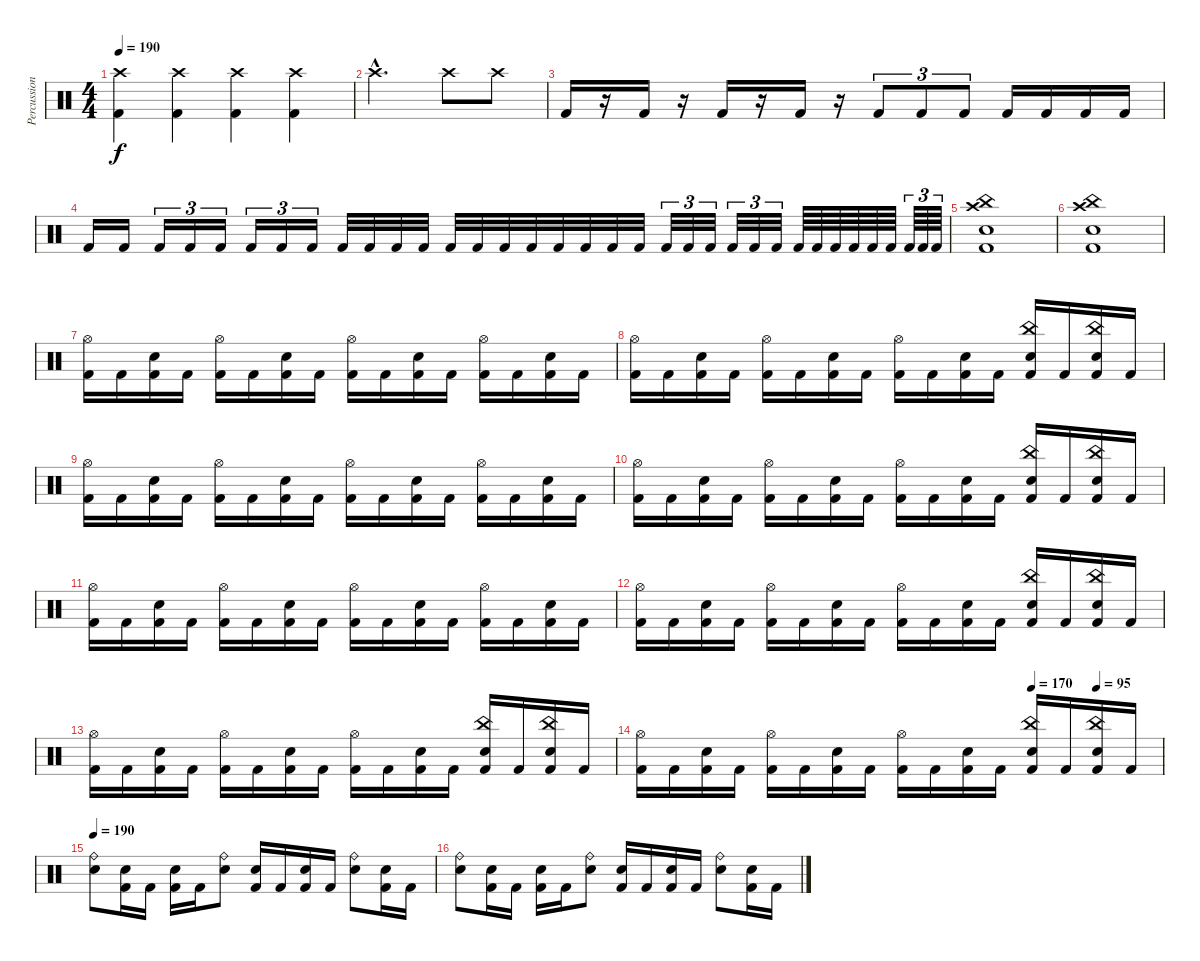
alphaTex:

\track ("Percussion" "Percussion") {instrument percussion}
\staff {score}
\articulation defaults
\ts (4 4)
\tempo 190
\clef neutral
\ks c
("Crash high (hit)" "Kick (hit) 2").4{dy f} ("Crash high (hit)" "Kick (hit) 2").4 ("Crash high (hit)" "Kick (hit) 2").4 ("Crash high (hit)" "Kick (hit) 2").4 |
"Crash high (hit)"{hac}.2{d} "Crash high (hit)".8 "Crash high (hit)".8 |
"Kick (hit) 2".16 r.16 "Kick (hit) 2".16 r.16 "Kick (hit) 2".16 r.16 "Kick (hit) 2".16 r.16 "Kick (hit) 2".8{tu (3 2)} "Kick (hit) 2".8{tu (3 2)} "Kick (hit) 2".8{tu (3 2)} "Kick (hit) 2".16 "Kick (hit) 2".16 "Kick (hit) 2".16 "Kick (hit) 2".16 |
"Kick (hit) 2".16 "Kick (hit) 2".16 "Kick (hit) 2".16{tu (3 2)} "Kick (hit) 2".16{tu (3 2)} "Kick (hit) 2".16{tu (3 2)} "Kick (hit) 2".16{tu (3 2)} "Kick (hit) 2".16{tu (3 2)} "Kick (hit) 2".16{tu (3 2)} "Kick (hit) 2".32 "Kick (hit) 2".32 "Kick (hit) 2".32 "Kick (hit) 2".32 "Kick (hit) 2".32 "Kick (hit) 2".32 "Kick (hit) 2".32 "Kick (hit) 2".32 "Kick (hit) 2".32 "Kick (hit) 2".32 "Kick (hit) 2".32 "Kick (hit) 2".32 "Kick (hit) 2".32{tu (3 2)} "Kick (hit) 2".32{tu (3 2)} "Kick (hit) 2".32{tu (3 2)} "Kick (hit) 2".32{tu (3 2)} "Kick (hit) 2".32{tu (3 2)} "Kick (hit) 2".32{tu (3 2)} "Kick (hit) 2".64 "Kick (hit) 2".64 "Kick (hit) 2".64 "Kick (hit) 2".64 "Kick (hit) 2".64 "Kick (hit) 2".64 "Kick (hit) 2".64{tu (3 2)} "Kick (hit) 2".64{tu (3 2)} "Kick (hit) 2".64{tu (3 2)} |
("Crash high (hit)" "China (hit)" "Snare (hit) 2" "Kick (hit) 2").1 |
("Crash high (hit)" "China (hit)" "Snare (hit) 2" "Kick (hit) 2").1 |
("Hi-Hat (open)" "Kick (hit) 2").16 "Kick (hit) 2".16 ("Snare (hit) 2" "Kick (hit) 2").16 "Kick (hit) 2".16 ("Hi-Hat (open)" "Kick (hit) 2").16 "Kick (hit) 2".16 ("Snare (hit) 2" "Kick (hit) 2").16 "Kick (hit) 2".16 ("Hi-Hat (open)" "Kick (hit) 2").16 "Kick (hit) 2".16 ("Snare (hit) 2" "Kick (hit) 2").16 "Kick (hit) 2".16 ("Hi-Hat (open)" "Kick (hit) 2").16 "Kick (hit) 2".16 ("Snare (hit) 2" "Kick (hit) 2").16 "Kick (hit) 2".16 |
("Hi-Hat (open)" "Kick (hit) 2").16 "Kick (hit) 2".16 ("Snare (hit) 2" "Kick (hit) 2").16 "Kick (hit) 2".16 ("Hi-Hat (open)" "Kick (hit) 2").16 "Kick (hit) 2".16 ("Snare (hit) 2" "Kick (hit) 2").16 "Kick (hit) 2".16 ("Hi-Hat (open)" "Kick (hit) 2").16 "Kick (hit) 2".16 ("Snare (hit) 2" "Kick (hit) 2").16 "Kick (hit) 2".16 ("China (hit)" "Snare (hit) 2" "Kick (hit) 2").16 "Kick (hit) 2".16 ("China (hit)" "Snare (hit) 2" "Kick (hit) 2").16 "Kick (hit) 2".16 |
("Hi-Hat (open)" "Kick (hit) 2").16 "Kick (hit) 2".16 ("Snare (hit) 2" "Kick (hit) 2").16 "Kick (hit) 2".16 ("Hi-Hat (open)" "Kick (hit) 2").16 "Kick (hit) 2".16 ("Snare (hit) 2" "Kick (hit) 2").16 "Kick (hit) 2".16 ("Hi-Hat (open)" "Kick (hit) 2").16 "Kick (hit) 2".16 ("Snare (hit) 2" "Kick (hit) 2").16 "Kick (hit) 2".16 ("Hi-Hat (open)" "Kick (hit) 2").16 "Kick (hit) 2".16 ("Snare (hit) 2" "Kick (hit) 2").16 "Kick (hit) 2".16 |
("Hi-Hat (open)" "Kick (hit) 2").16 "Kick (hit) 2".16 ("Snare (hit) 2" "Kick (hit) 2").16 "Kick (hit) 2".16 ("Hi-Hat (open)" "Kick (hit) 2").16 "Kick (hit) 2".16 ("Snare (hit) 2" "Kick (hit) 2").16 "Kick (hit) 2".16 ("Hi-Hat (open)" "Kick (hit) 2").16 "Kick (hit) 2".16 ("Snare (hit) 2" "Kick (hit) 2").16 "Kick (hit) 2".16 ("China (hit)" "Snare (hit) 2" "Kick (hit) 2").16 "Kick (hit) 2".16 ("China (hit)" "Snare (hit) 2" "Kick (hit) 2").16 "Kick (hit) 2".16 |
("Hi-Hat (open)" "Kick (hit) 2").16 "Kick (hit) 2".16 ("Snare (hit) 2" "Kick (hit) 2").16 "Kick (hit) 2".16 ("Hi-Hat (open)" "Kick (hit) 2").16 "Kick (hit) 2".16 ("Snare (hit) 2" "Kick (hit) 2").16 "Kick (hit) 2".16 ("Hi-Hat (open)" "Kick (hit) 2").16 "Kick (hit) 2".16 ("Snare (hit) 2" "Kick (hit) 2").16 "Kick (hit) 2".16 ("Hi-Hat (open)" "Kick (hit) 2").16 "Kick (hit) 2".16 ("Snare (hit) 2" "Kick (hit) 2").16 "Kick (hit) 2".16 |
("Hi-Hat (open)" "Kick (hit) 2").16 "Kick (hit) 2".16 ("Snare (hit) 2" "Kick (hit) 2").16 "Kick (hit) 2".16 ("Hi-Hat (open)" "Kick (hit) 2").16 "Kick (hit) 2".16 ("Snare (hit) 2" "Kick (hit) 2").16 "Kick (hit) 2".16 ("Hi-Hat (open)" "Kick (hit) 2").16 "Kick (hit) 2".16 ("Snare (hit) 2" "Kick (hit) 2").16 "Kick (hit) 2".16 ("China (hit)" "Snare (hit) 2" "Kick (hit) 2").16 "Kick (hit) 2".16 ("China (hit)" "Snare (hit) 2" "Kick (hit) 2").16 "Kick (hit) 2".16 |
("Hi-Hat (open)" "Kick (hit) 2").16 "Kick (hit) 2".16 ("Snare (hit) 2" "Kick (hit) 2").16 "Kick (hit) 2".16 ("Hi-Hat (open)" "Kick (hit) 2").16 "Kick (hit) 2".16 ("Snare (hit) 2" "Kick (hit) 2").16 "Kick (hit) 2".16 ("Hi-Hat (open)" "Kick (hit) 2").16 "Kick (hit) 2".16 ("Snare (hit) 2" "Kick (hit) 2").16 "Kick (hit) 2".16 ("China (hit)" "Snare (hit) 2" "Kick (hit) 2").16 "Kick (hit) 2".16 ("China (hit)" "Snare (hit) 2" "Kick (hit) 2").16 "Kick (hit) 2".16 |
\tempo (170 0.75)
\tempo (95 0.875)
("Hi-Hat (open)" "Kick (hit) 2").16 "Kick (hit) 2".16 ("Snare (hit) 2" "Kick (hit) 2").16 "Kick (hit) 2".16 ("Hi-Hat (open)" "Kick (hit) 2").16 "Kick (hit) 2".16 ("Snare (hit) 2" "Kick (hit) 2").16 "Kick (hit) 2".16 ("Hi-Hat (open)" "Kick (hit) 2").16 "Kick (hit) 2".16 ("Snare (hit) 2" "Kick (hit) 2").16 "Kick (hit) 2".16 ("China (hit)" "Snare (hit) 2" "Kick (hit) 2").16 "Kick (hit) 2".16 ("China (hit)" "Snare (hit) 2" "Kick (hit) 2").16 "Kick (hit) 2".16 |
\tempo 190
("Ride (bell)" "Snare (hit) 2").8 ("Snare (hit) 2" "Kick (hit) 2").16 "Kick (hit) 2".16 ("Snare (hit) 2" "Kick (hit) 2").16 "Kick (hit) 2".16 ("Ride (bell)" "Snare (hit) 2").8 ("Snare (hit) 2" "Kick (hit) 2").16 "Kick (hit) 2".16 ("Snare (hit) 2" "Kick (hit) 2").16 "Kick (hit) 2".16 ("Ride (bell)" "Snare (hit) 2").8 ("Snare (hit) 2" "Kick (hit) 2").16 "Kick (hit) 2".16 |
("Ride (bell)" "Snare (hit) 2").8 ("Snare (hit) 2" "Kick (hit) 2").16 "Kick (hit) 2".16 ("Snare (hit) 2" "Kick (hit) 2").16 "Kick (hit) 2".16 ("Ride (bell)" "Snare (hit) 2").8 ("Snare (hit) 2" "Kick (hit) 2").16 "Kick (hit) 2".16 ("Snare (hit) 2" "Kick (hit) 2").16 "Kick (hit) 2".16 ("Ride (bell)" "Snare (hit) 2").8 ("Snare (hit) 2" "Kick (hit) 2").16 "Kick (hit) 2".16
